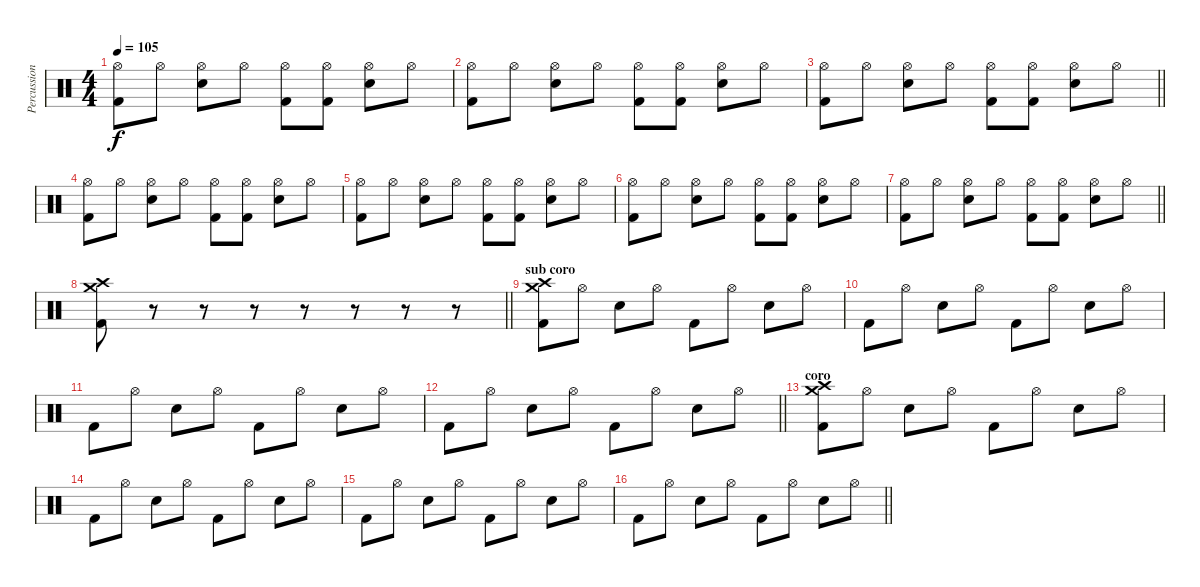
\track ("Percussion" "Percussion") {instrument percussion}
\staff {score}
\articulation defaults
\ts (4 4)
\tempo 105
\clef neutral
\ks c
("Hi-Hat (open)" "Kick (hit) 2").8{dy f} "Hi-Hat (open)".8 ("Hi-Hat (open)" "Snare (hit) 2").8 "Hi-Hat (open)".8 ("Hi-Hat (open)" "Kick (hit) 2").8 ("Hi-Hat (open)" "Kick (hit) 2").8 ("Hi-Hat (open)" "Snare (hit) 2").8 "Hi-Hat (open)".8 |
("Hi-Hat (open)" "Kick (hit) 2").8 "Hi-Hat (open)".8 ("Hi-Hat (open)" "Snare (hit) 2").8 "Hi-Hat (open)".8 ("Hi-Hat (open)" "Kick (hit) 2").8 ("Hi-Hat (open)" "Kick (hit) 2").8 ("Hi-Hat (open)" "Snare (hit) 2").8 "Hi-Hat (open)".8 |
\barLineRight lightlight
("Hi-Hat (open)" "Kick (hit) 2").8 "Hi-Hat (open)".8 ("Hi-Hat (open)" "Snare (hit) 2").8 "Hi-Hat (open)".8 ("Hi-Hat (open)" "Kick (hit) 2").8 ("Hi-Hat (open)" "Kick (hit) 2").8 ("Hi-Hat (open)" "Snare (hit) 2").8 "Hi-Hat (open)".8 |
("Hi-Hat (open)" "Kick (hit) 2").8 "Hi-Hat (open)".8 ("Hi-Hat (open)" "Snare (hit) 2").8 "Hi-Hat (open)".8 ("Hi-Hat (open)" "Kick (hit) 2").8 ("Hi-Hat (open)" "Kick (hit) 2").8 ("Hi-Hat (open)" "Snare (hit) 2").8 "Hi-Hat (open)".8 |
("Hi-Hat (open)" "Kick (hit) 2").8 "Hi-Hat (open)".8 ("Hi-Hat (open)" "Snare (hit) 2").8 "Hi-Hat (open)".8 ("Hi-Hat (open)" "Kick (hit) 2").8 ("Hi-Hat (open)" "Kick (hit) 2").8 ("Hi-Hat (open)" "Snare (hit) 2").8 "Hi-Hat (open)".8 |
("Hi-Hat (open)" "Kick (hit) 2").8 "Hi-Hat (open)".8 ("Hi-Hat (open)" "Snare (hit) 2").8 "Hi-Hat (open)".8 ("Hi-Hat (open)" "Kick (hit) 2").8 ("Hi-Hat (open)" "Kick (hit) 2").8 ("Hi-Hat (open)" "Snare (hit) 2").8 "Hi-Hat (open)".8 |
\barLineRight lightlight
("Hi-Hat (open)" "Kick (hit) 2").8 "Hi-Hat (open)".8 ("Hi-Hat (open)" "Snare (hit) 2").8 "Hi-Hat (open)".8 ("Hi-Hat (open)" "Kick (hit) 2").8 ("Hi-Hat (open)" "Kick (hit) 2").8 ("Hi-Hat (open)" "Snare (hit) 2").8 "Hi-Hat (open)".8 |
\barLineRight lightlight
("Crash high (hit)" "Crash medium (hit)" "Kick (hit) 2").8 r.8 r.8 r.8 r.8 r.8 r.8 r.8 |
\section ("" "sub coro")
("Crash high (hit)" "Crash medium (hit)" "Kick (hit) 2").8 "Hi-Hat (open)".8 "Snare (hit) 2".8 "Hi-Hat (open)".8 "Kick (hit) 2".8 "Hi-Hat (open)".8 "Snare (hit) 2".8 "Hi-Hat (open)".8 |
"Kick (hit) 2".8 "Hi-Hat (open)".8 "Snare (hit) 2".8 "Hi-Hat (open)".8 "Kick (hit) 2".8 "Hi-Hat (open)".8 "Snare (hit) 2".8 "Hi-Hat (open)".8 |
"Kick (hit) 2".8 "Hi-Hat (open)".8 "Snare (hit) 2".8 "Hi-Hat (open)".8 "Kick (hit) 2".8 "Hi-Hat (open)".8 "Snare (hit) 2".8 "Hi-Hat (open)".8 |
\barLineRight lightlight "Kick (hit) 2".8 "Hi-Hat (open)".8 "Snare (hit) 2".8 "Hi-Hat (open)".8 "Kick (hit) 2".8 "Hi-Hat (open)".8 "Snare (hit) 2".8 "Hi-Hat (open)".8
|
\section ("" "coro")
("Crash high (hit)" "Crash medium (hit)" "Kick (hit) 2").8 "Hi-Hat (open)".8 "Snare (hit) 2".8 "Hi-Hat (open)".8 "Kick (hit) 2".8 "Hi-Hat (open)".8 "Snare (hit) 2".8 "Hi-Hat (open)".8 |
"Kick (hit) 2".8 "Hi-Hat (open)".8 "Snare (hit) 2".8 "Hi-Hat (open)".8 "Kick (hit) 2".8 "Hi-Hat (open)".8 "Snare (hit) 2".8 "Hi-Hat (open)".8 |
"Kick (hit) 2".8 "Hi-Hat (open)".8 "Snare (hit) 2".8 "Hi-Hat (open)".8 "Kick (hit) 2".8 "Hi-Hat (open)".8 "Snare (hit) 2".8 "Hi-Hat (open)".8 |
\barLineRight lightlight "Kick (hit) 2".8 "Hi-Hat (open)".8 "Snare (hit) 2".8 "Hi-Hat (open)".8 "Kick (hit) 2".8 "Hi-Hat (open)".8 "Snare (hit) 2".8 "Hi-Hat (open)".8
